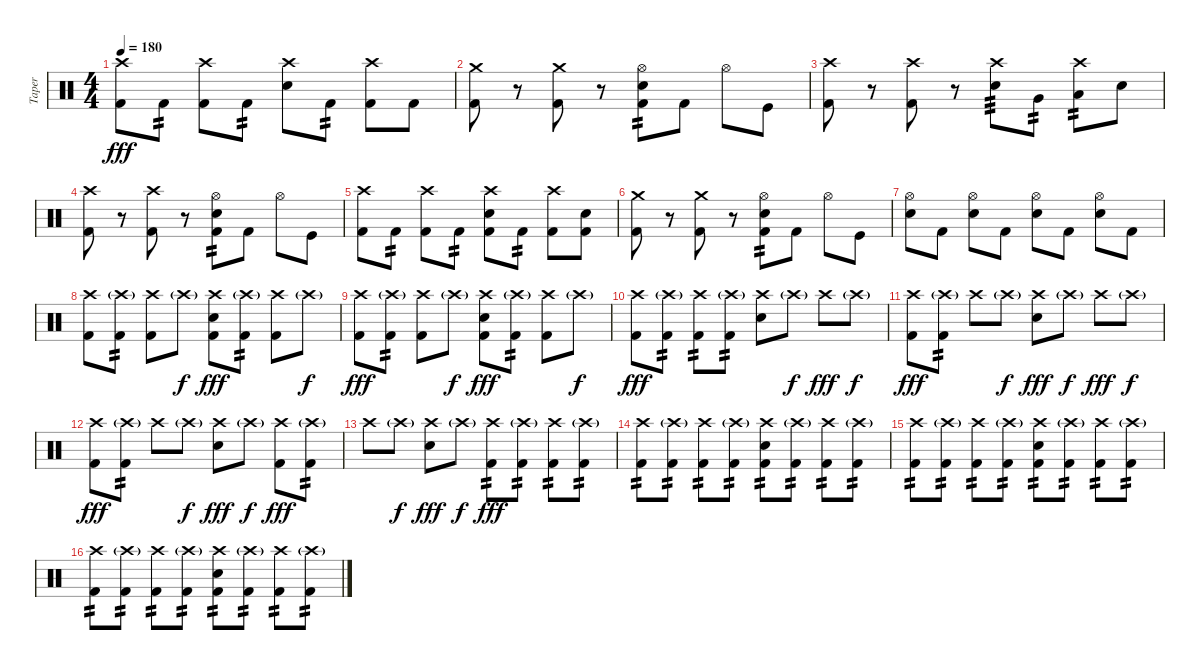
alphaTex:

\track ("Taper" "Taper") {instrument percussion}
\staff {score}
\articulation defaults
\ts (4 4)
\tempo 180
\clef neutral
\ks c
("Crash high (hit)" "Kick (hit) 2").8{dy fff} "Kick (hit) 2".8{tp 2} ("Crash high (hit)" "Kick (hit) 2").8 "Kick (hit) 2".8{tp 2} ("Crash high (hit)" "Snare (hit) 2").8 "Kick (hit) 2".8{tp 2} ("Crash high (hit)" "Kick (hit) 2").8 "Kick (hit) 2".8 |
("Crash medium (hit)" "Kick (hit) 2").8 r.8 ("Crash medium (hit)" "Kick (hit) 2").8 r.8 ("Hi-Hat (open)" "Snare (hit) 2" "Kick (hit) 2").8{tp 2} "Kick (hit) 2".8 "Hi-Hat (open)".8 "Kick (hit)".8 |
("Crash high (hit)" "Kick (hit) 2").8 r.8 ("Crash high (hit)" "Kick (hit) 2").8 r.8 ("Crash high (hit)" "Snare (hit) 2").8{tp 3} "Very Low Tom (hit)".8{tp 2} ("Crash high (hit)" "Low Floor Tom (hit)").8{tp 2} "Snare (hit) 2".8 |
("Crash high (hit)" "Kick (hit) 2").8 r.8 ("Crash high (hit)" "Kick (hit) 2").8 r.8 ("Hi-Hat (open)" "Snare (hit) 2" "Kick (hit) 2").8{tp 2} "Kick (hit) 2".8 "Hi-Hat (open)".8 "Kick (hit)".8 |
("Crash high (hit)" "Kick (hit) 2").8 "Kick (hit) 2".8{tp 2} ("Crash high (hit)" "Kick (hit) 2").8 "Kick (hit) 2".8{tp 2} ("Crash high (hit)" "Snare (hit) 2" "Kick (hit) 2").8 "Kick (hit) 2".8{tp 2} ("Crash high (hit)" "Kick (hit) 2").8 ("Snare (hit) 2" "Kick (hit) 2").8 |
("Crash medium (hit)" "Kick (hit) 2").8 r.8 ("Crash medium (hit)" "Kick (hit) 2").8 r.8 ("Hi-Hat (open)" "Snare (hit) 2" "Kick (hit) 2").8{tp 2} "Kick (hit) 2".8 "Hi-Hat (open)".8 "Kick (hit)".8 |
("Hi-Hat (open)" "Snare (hit) 2").8 "Kick (hit) 2".8 ("Hi-Hat (open)" "Snare (hit) 2").8 "Kick (hit) 2".8 ("Hi-Hat (open)" "Snare (hit) 2").8 "Kick (hit) 2".8 ("Hi-Hat (open)" "Snare (hit) 2").8 "Kick (hit) 2".8 |
("Crash high (hit)" "Kick (hit) 2").8 ("Crash high (hit)"{g} "Kick (hit) 2").8{tp 2} ("Crash high (hit)" "Kick (hit) 2").8 "Crash high (hit)"{g}.8{dy f} ("Crash high (hit)" "Snare (hit) 2" "Kick (hit) 2").8{dy fff} ("Crash high (hit)"{g} "Kick (hit) 2").8{tp 2} ("Crash high (hit)" "Kick (hit) 2").8 "Crash high (hit)"{g}.8{dy f} |
("Crash high (hit)" "Kick (hit) 2").8{dy fff} ("Crash high (hit)"{g} "Kick (hit) 2").8{tp 2} ("Crash high (hit)" "Kick (hit) 2").8 "Crash high (hit)"{g}.8{dy f} ("Crash high (hit)" "Snare (hit) 2" "Kick (hit) 2").8{dy fff} ("Crash high (hit)"{g} "Kick (hit) 2").8{tp 2} ("Crash high (hit)" "Kick (hit) 2").8 "Crash high (hit)"{g}.8{dy f} |
("Crash high (hit)" "Kick (hit) 2").8{dy fff} ("Crash high (hit)"{g} "Kick (hit) 2").8{tp 2} ("Crash high (hit)" "Kick (hit) 2").8{tp 2} ("Crash high (hit)"{g} "Kick (hit) 2").8{tp 2} ("Crash high (hit)" "Snare (hit) 2").8 "Crash high (hit)"{g}.8{dy f} "Crash high (hit)".8{dy fff} "Crash high (hit)"{g}.8{dy f} |
("Crash high (hit)" "Kick (hit) 2").8{dy fff} ("Crash high (hit)"{g} "Kick (hit) 2").8{tp 2} "Crash high (hit)".8 "Crash high (hit)"{g}.8{dy f} ("Crash high (hit)" "Snare (hit) 2").8{dy fff} "Crash high (hit)"{g}.8{dy f} "Crash high (hit)".8{dy fff} "Crash high (hit)"{g}.8{dy f} |
("Crash high (hit)" "Kick (hit) 2").8{dy fff} ("Crash high (hit)"{g} "Kick (hit) 2").8{tp 2} "Crash high (hit)".8 "Crash high (hit)"{g}.8{dy f} ("Crash high (hit)" "Snare (hit) 2").8{dy fff} "Crash high (hit)"{g}.8{dy f} ("Crash high (hit)" "Kick (hit) 2").8{dy fff} ("Crash high (hit)"{g} "Kick (hit) 2").8{tp 2} |
"Crash high (hit)".8 "Crash high (hit)"{g}.8{dy f} ("Crash high (hit)" "Snare (hit) 2").8{dy fff} "Crash high (hit)"{g}.8{dy f} ("Crash high (hit)" "Kick (hit) 2").8{tp 2 dy fff} ("Crash high (hit)"{g} "Kick (hit) 2").8{tp 2} ("Crash high (hit)" "Kick (hit) 2").8{tp 2} ("Crash high (hit)"{g} "Kick (hit) 2").8{tp 2} |
("Crash high (hit)" "Kick (hit) 2").8{tp 2} ("Crash high (hit)"{g} "Kick (hit) 2").8{tp 2} ("Crash high (hit)" "Kick (hit) 2").8{tp 2} ("Crash high (hit)"{g} "Kick (hit) 2").8{tp 2} ("Crash high (hit)" "Snare (hit) 2" "Kick (hit) 2").8{tp 2} ("Crash high (hit)"{g} "Kick (hit) 2").8{tp 2} ("Crash high (hit)" "Kick (hit) 2").8{tp 2} ("Crash high (hit)"{g} "Kick (hit) 2").8{tp 2} |
("Crash high (hit)" "Kick (hit) 2").8{tp 2} ("Crash high (hit)"{g} "Kick (hit) 2").8{tp 2} ("Crash high (hit)" "Kick (hit) 2").8{tp 2} ("Crash high (hit)"{g} "Kick (hit) 2").8{tp 2} ("Crash high (hit)" "Snare (hit) 2" "Kick (hit) 2").8{tp 2} ("Crash high (hit)"{g} "Kick (hit) 2").8{tp 2} ("Crash high (hit)" "Kick (hit) 2").8{tp 2} ("Crash high (hit)"{g} "Kick (hit) 2").8{tp 2} |
("Crash high (hit)" "Kick (hit) 2").8{tp 2} ("Crash high (hit)"{g} "Kick (hit) 2").8{tp 2} ("Crash high (hit)" "Kick (hit) 2").8{tp 2} ("Crash high (hit)"{g} "Kick (hit) 2").8{tp 2} ("Crash high (hit)" "Snare (hit) 2" "Kick (hit) 2").8{tp 2} ("Crash high (hit)"{g} "Kick (hit) 2").8{tp 2} ("Crash high (hit)" "Kick (hit) 2").8{tp 2} ("Crash high (hit)"{g} "Kick (hit) 2").8{tp 2}
